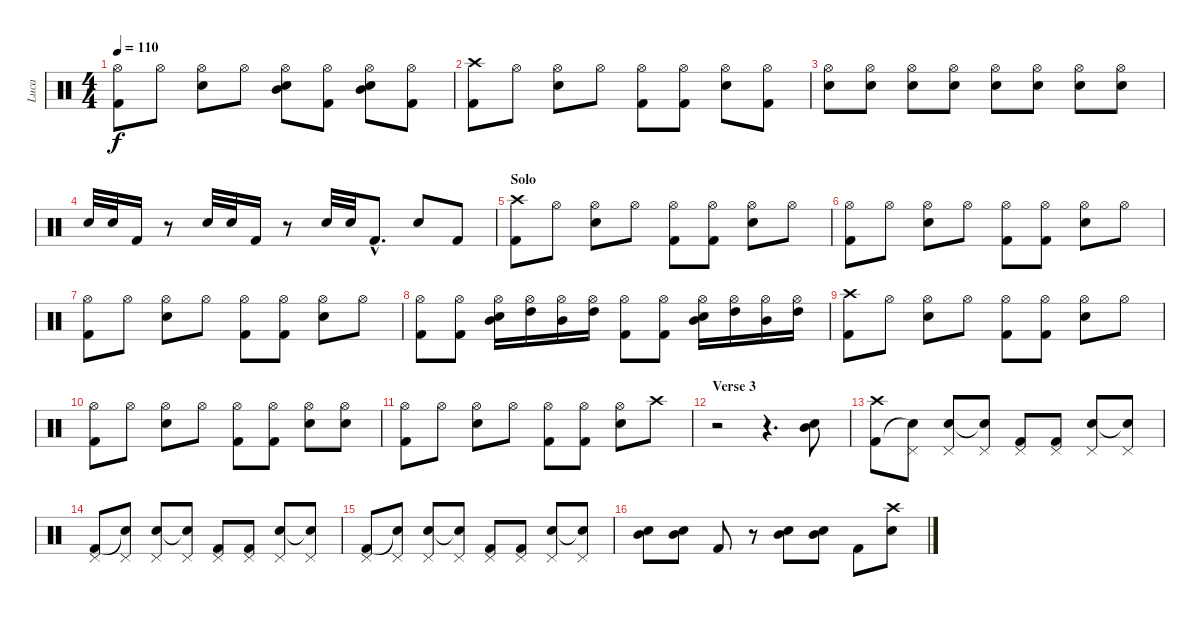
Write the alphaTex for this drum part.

\track ("Luca" "Luca") {instrument percussion}
\staff {score}
\articulation defaults
\ts (4 4)
\tempo 110
\clef neutral
\ks c
("Hi-Hat (open)" "Kick (hit) 2").8{dy f} "Hi-Hat (open)".8 ("Hi-Hat (open)" "Snare (hit) 2").8 "Hi-Hat (open)".8 ("Hi-Hat (open)" "Snare (hit) 2" "Mid Tom (hit)").8 ("Hi-Hat (open)" "Kick (hit) 2").8 ("Hi-Hat (open)" "Snare (hit) 2" "Mid Tom (hit)").8 ("Hi-Hat (open)" "Kick (hit) 2").8 |
("Crash high (hit)" "Kick (hit) 2").8 "Hi-Hat (open)".8 ("Hi-Hat (open)" "Snare (hit) 2").8 "Hi-Hat (open)".8 ("Hi-Hat (open)" "Kick (hit) 2").8 ("Hi-Hat (open)" "Kick (hit) 2").8 ("Hi-Hat (open)" "Snare (hit) 2").8 ("Hi-Hat (open)" "Kick (hit) 2").8 |
("Hi-Hat (open)" "Snare (hit) 2").8 ("Hi-Hat (open)" "Snare (hit) 2").8 ("Hi-Hat (open)" "Snare (hit) 2").8 ("Hi-Hat (open)" "Snare (hit) 2").8 ("Hi-Hat (open)" "Snare (hit) 2").8 ("Hi-Hat (open)" "Snare (hit) 2").8 ("Hi-Hat (open)" "Snare (hit) 2").8 ("Hi-Hat (open)" "Snare (hit) 2").8 |
"Snare (hit) 2".32 "Snare (hit) 2".32 "Kick (hit) 2".16 r.8 "Snare (hit) 2".32 "Snare (hit) 2".32 "Kick (hit) 2".16 r.8 "Snare (hit) 2".32 "Snare (hit) 2".32 "Kick (hit) 2"{hac}.8{d} "Snare (hit) 2".8 "Kick (hit) 2".8 |
\section ("" "Solo")
("Crash high (hit)" "Kick (hit) 2").8 "Hi-Hat (open)".8 ("Hi-Hat (open)" "Snare (hit) 2").8 "Hi-Hat (open)".8 ("Hi-Hat (open)" "Kick (hit) 2").8 ("Hi-Hat (open)" "Kick (hit) 2").8 ("Hi-Hat (open)" "Snare (hit) 2").8 "Hi-Hat (open)".8 |
("Hi-Hat (open)" "Kick (hit) 2").8 "Hi-Hat (open)".8 ("Hi-Hat (open)" "Snare (hit) 2").8 "Hi-Hat (open)".8 ("Hi-Hat (open)" "Kick (hit) 2").8 ("Hi-Hat (open)" "Kick (hit) 2").8 ("Hi-Hat (open)" "Snare (hit) 2").8 "Hi-Hat (open)".8 |
("Hi-Hat (open)" "Kick (hit) 2").8 "Hi-Hat (open)".8 ("Hi-Hat (open)" "Snare (hit) 2").8 "Hi-Hat (open)".8 ("Hi-Hat (open)" "Kick (hit) 2").8 ("Hi-Hat (open)" "Kick (hit) 2").8 ("Hi-Hat (open)" "Snare (hit) 2").8 "Hi-Hat (open)".8 |
("Hi-Hat (open)" "Kick (hit) 2").8 ("Hi-Hat (open)" "Kick (hit) 2").8 ("Hi-Hat (open)" "Snare (hit) 2" "Mid Tom (hit)").16 ("Hi-Hat (open)" "High Tom (hit)").16 ("Hi-Hat (open)" "Mid Tom (hit)").16 ("Hi-Hat (open)" "High Tom (hit)").16 ("Hi-Hat (open)" "Kick (hit) 2").8 ("Hi-Hat (open)" "Kick (hit) 2").8 ("Hi-Hat (open)" "Snare (hit) 2" "Mid Tom (hit)").16 ("Hi-Hat (open)" "High Tom (hit)").16 ("Hi-Hat (open)" "Mid Tom (hit)").16 ("Hi-Hat (open)" "High Tom (hit)").16 |
("Crash high (hit)" "Kick (hit) 2").8 "Hi-Hat (open)".8 ("Hi-Hat (open)" "Snare (hit) 2").8 "Hi-Hat (open)".8 ("Hi-Hat (open)" "Kick (hit) 2").8 ("Hi-Hat (open)" "Kick (hit) 2").8 ("Hi-Hat (open)" "Snare (hit) 2").8 "Hi-Hat (open)".8 |
("Hi-Hat (open)" "Kick (hit) 2").8 "Hi-Hat (open)".8 ("Hi-Hat (open)" "Snare (hit) 2").8 "Hi-Hat (open)".8 ("Hi-Hat (open)" "Kick (hit) 2").8 ("Hi-Hat (open)" "Kick (hit) 2").8 ("Hi-Hat (open)" "Snare (hit) 2").8 ("Hi-Hat (open)" "Snare (hit) 2").8 |
("Hi-Hat (open)" "Kick (hit) 2").8 "Hi-Hat (open)".8 ("Hi-Hat (open)" "Snare (hit) 2").8 "Hi-Hat (open)".8 ("Hi-Hat (open)" "Kick (hit) 2").8 ("Hi-Hat (open)" "Kick (hit) 2").8 ("Hi-Hat (open)" "Snare (hit) 2").8 "Crash high (hit)".8 |
\section ("" "Verse 3")
r.2 r.4{d} ("Snare (hit) 2" "Mid Tom (hit)").8 |
("Crash high (hit)" "Kick (hit) 2").8 ("Pedal Hi-Hat (hit)" "Snare (hit) 2"{t}).8 ("Pedal Hi-Hat (hit)" "Snare (hit) 2").8 ("Pedal Hi-Hat (hit)" "Snare (hit)"{t}).8 ("Pedal Hi-Hat (hit)" "Kick (hit) 2").8 ("Pedal Hi-Hat (hit)" "Kick (hit) 2").8 ("Pedal Hi-Hat (hit)" "Snare (hit) 2").8 ("Pedal Hi-Hat (hit)" "Snare (hit)"{t}).8 |
("Pedal Hi-Hat (hit)" "Kick (hit) 2").8 ("Pedal Hi-Hat (hit)" "Snare (hit) 2"{t}).8 ("Pedal Hi-Hat (hit)" "Snare (hit) 2").8 ("Pedal Hi-Hat (hit)" "Snare (hit)"{t}).8 ("Pedal Hi-Hat (hit)" "Kick (hit) 2").8 ("Pedal Hi-Hat (hit)" "Kick (hit) 2").8 ("Pedal Hi-Hat (hit)" "Snare (hit) 2").8 ("Pedal Hi-Hat (hit)" "Snare (hit)"{t}).8 |
("Pedal Hi-Hat (hit)" "Kick (hit) 2").8 ("Pedal Hi-Hat (hit)" "Snare (hit) 2"{t}).8 ("Pedal Hi-Hat (hit)" "Snare (hit) 2").8 ("Pedal Hi-Hat (hit)" "Snare (hit)"{t}).8 ("Pedal Hi-Hat (hit)" "Kick (hit) 2").8 ("Pedal Hi-Hat (hit)" "Kick (hit) 2").8 ("Pedal Hi-Hat (hit)" "Snare (hit) 2").8 ("Pedal Hi-Hat (hit)" "Snare (hit)"{t}).8 |
("Snare (hit) 2" "Mid Tom (hit)").8 ("Snare (hit) 2" "Mid Tom (hit)").8 "Kick (hit) 2".8 r.8 ("Snare (hit) 2" "Mid Tom (hit)").8 ("Snare (hit) 2" "Mid Tom (hit)").8 "Kick (hit) 2".8 ("Crash high (hit)" "Snare (hit) 2").8
